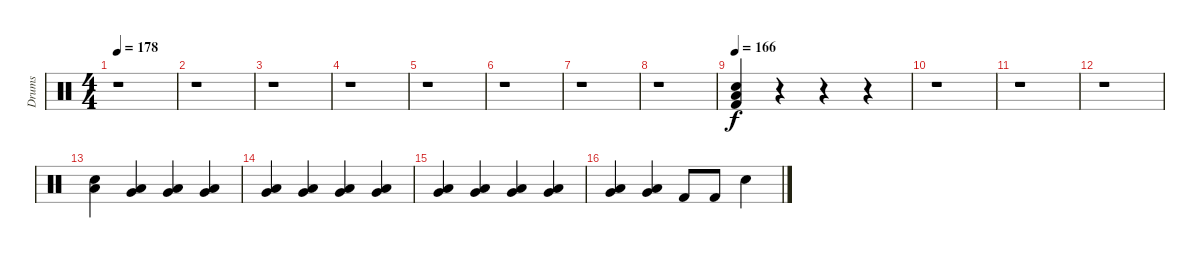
\track ("Drums" "Drums") {instrument percussion}
\staff {score}
\articulation defaults
\ts (4 4)
\tempo 178
\clef neutral
\ks c
r.1{dy f} |
r.1 |
r.1 |
r.1 |
r.1 |
r.1 |
r.1 |
r.1 |
\tempo 166
("Low Floor Tom (hit)" "Electric Snare (hit)" "Kick (hit) 2").4 r.4 r.4 r.4 |
r.1 |
r.1 |
r.1 |
("Low Floor Tom (hit)" "Electric Snare (hit)").4 ("Very Low Tom (hit)" "Low Floor Tom (hit)").4 ("Very Low Tom (hit)" "Low Floor Tom (hit)").4 ("Very Low Tom (hit)" "Low Floor Tom (hit)").4 |
("Low Floor Tom (hit)" "Very Low Tom (hit)").4 ("Very Low Tom (hit)" "Low Floor Tom (hit)").4 ("Very Low Tom (hit)" "Low Floor Tom (hit)").4 ("Very Low Tom (hit)" "Low Floor Tom (hit)").4 |
("Low Floor Tom (hit)" "Very Low Tom (hit)").4 ("Very Low Tom (hit)" "Low Floor Tom (hit)").4 ("Very Low Tom (hit)" "Low Floor Tom (hit)").4 ("Very Low Tom (hit)" "Low Floor Tom (hit)").4 |
("Low Floor Tom (hit)" "Very Low Tom (hit)").4 ("Very Low Tom (hit)" "Low Floor Tom (hit)").4 "Kick (hit) 2".8 "Kick (hit) 2".8 "Electric Snare (hit)".4
